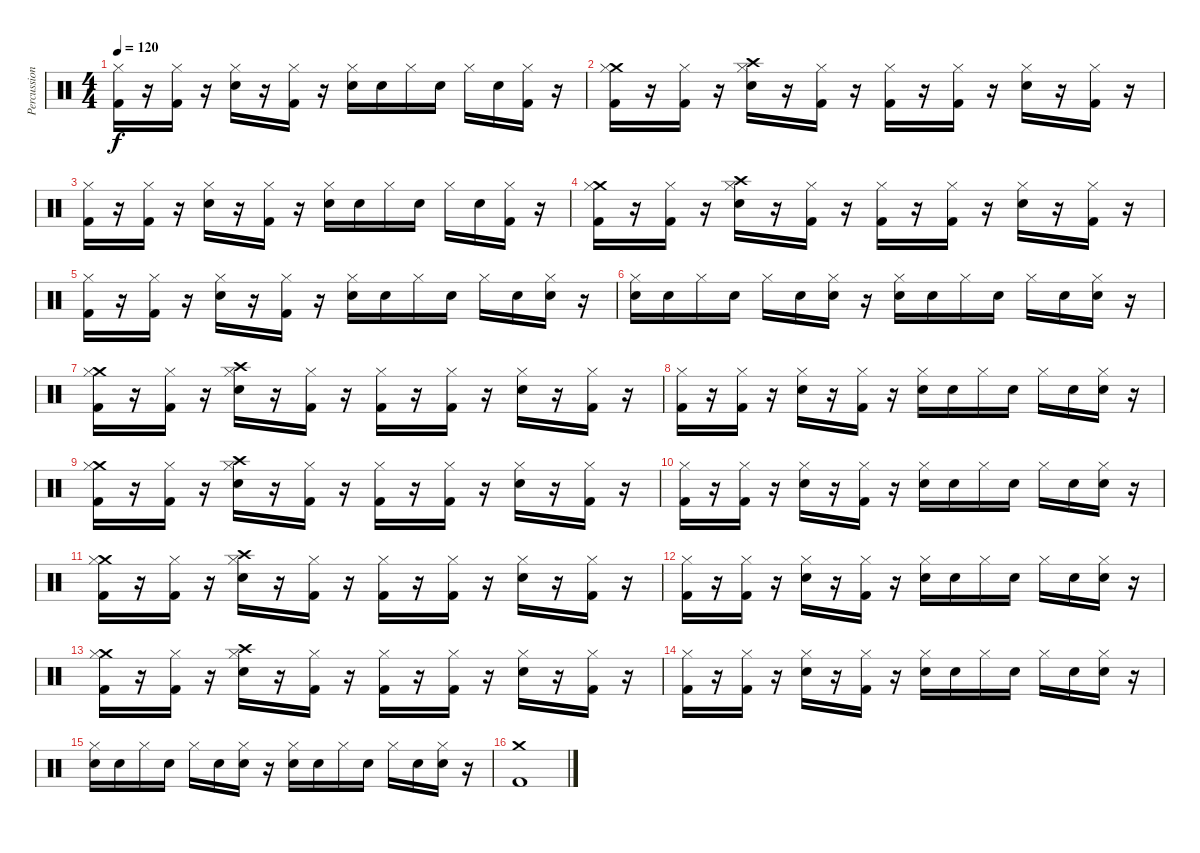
\track ("Percussion" "Percussion") {instrument percussion}
\staff {score}
\articulation defaults
\ts (4 4)
\tempo 120
\clef neutral
\ks c
("Hi-Hat (closed)" "Kick (hit) 2").16{dy f} r.16 ("Hi-Hat (closed)" "Kick (hit) 2").16 r.16 ("Hi-Hat (closed)" "Snare (hit) 2").16 r.16 ("Hi-Hat (closed)" "Kick (hit) 2").16 r.16 ("Hi-Hat (closed)" "Snare (hit) 2").16 "Snare (hit) 2".16 "Hi-Hat (closed)".16 "Snare (hit) 2".16 "Hi-Hat (closed)".16 "Snare (hit) 2".16 ("Hi-Hat (closed)" "Kick (hit) 2").16 r.16 |
("Crash medium (hit)" "Hi-Hat (closed)" "Kick (hit) 2").16 r.16 ("Hi-Hat (closed)" "Kick (hit) 2").16 r.16 ("Crash high (hit)" "Hi-Hat (closed)" "Snare (hit) 2").16 r.16 ("Hi-Hat (closed)" "Kick (hit) 2").16 r.16 ("Hi-Hat (closed)" "Kick (hit) 2").16 r.16 ("Hi-Hat (closed)" "Kick (hit) 2").16 r.16 ("Hi-Hat (closed)" "Snare (hit) 2").16 r.16 ("Hi-Hat (closed)" "Kick (hit) 2").16 r.16 |
("Hi-Hat (closed)" "Kick (hit) 2").16 r.16 ("Hi-Hat (closed)" "Kick (hit) 2").16 r.16 ("Hi-Hat (closed)" "Snare (hit) 2").16 r.16 ("Hi-Hat (closed)" "Kick (hit) 2").16 r.16 ("Hi-Hat (closed)" "Snare (hit) 2").16 "Snare (hit) 2".16 "Hi-Hat (closed)".16 "Snare (hit) 2".16 "Hi-Hat (closed)".16 "Snare (hit) 2".16 ("Hi-Hat (closed)" "Kick (hit) 2").16 r.16 |
("Crash medium (hit)" "Hi-Hat (closed)" "Kick (hit) 2").16 r.16 ("Hi-Hat (closed)" "Kick (hit) 2").16 r.16 ("Crash high (hit)" "Hi-Hat (closed)" "Snare (hit) 2").16 r.16 ("Hi-Hat (closed)" "Kick (hit) 2").16 r.16 ("Hi-Hat (closed)" "Kick (hit) 2").16 r.16 ("Hi-Hat (closed)" "Kick (hit) 2").16 r.16 ("Hi-Hat (closed)" "Snare (hit) 2").16 r.16 ("Hi-Hat (closed)" "Kick (hit) 2").16 r.16 |
("Hi-Hat (closed)" "Kick (hit) 2").16 r.16 ("Hi-Hat (closed)" "Kick (hit) 2").16 r.16 ("Hi-Hat (closed)" "Snare (hit) 2").16 r.16 ("Hi-Hat (closed)" "Kick (hit) 2").16 r.16 ("Hi-Hat (closed)" "Snare (hit) 2").16 "Snare (hit) 2".16 "Hi-Hat (closed)".16 "Snare (hit) 2".16 "Hi-Hat (closed)".16 "Snare (hit) 2".16 ("Hi-Hat (closed)" "Snare (hit) 2").16 r.16 |
("Hi-Hat (closed)" "Snare (hit) 2").16 "Snare (hit) 2".16 "Hi-Hat (closed)".16 "Snare (hit) 2".16 "Hi-Hat (closed)".16 "Snare (hit) 2".16 ("Hi-Hat (closed)" "Snare (hit) 2").16 r.16 ("Hi-Hat (closed)" "Snare (hit) 2").16 "Snare (hit) 2".16 "Hi-Hat (closed)".16 "Snare (hit) 2".16 "Hi-Hat (closed)".16 "Snare (hit) 2".16 ("Hi-Hat (closed)" "Snare (hit) 2").16 r.16 |
("Crash medium (hit)" "Hi-Hat (closed)" "Kick (hit) 2").16 r.16 ("Hi-Hat (closed)" "Kick (hit) 2").16 r.16 ("Crash high (hit)" "Hi-Hat (closed)" "Snare (hit) 2").16 r.16 ("Hi-Hat (closed)" "Kick (hit) 2").16 r.16 ("Hi-Hat (closed)" "Kick (hit) 2").16 r.16 ("Hi-Hat (closed)" "Kick (hit) 2").16 r.16 ("Hi-Hat (closed)" "Snare (hit) 2").16 r.16 ("Hi-Hat (closed)" "Kick (hit) 2").16 r.16 |
("Hi-Hat (closed)" "Kick (hit) 2").16 r.16 ("Hi-Hat (closed)" "Kick (hit) 2").16 r.16 ("Hi-Hat (closed)" "Snare (hit) 2").16 r.16 ("Hi-Hat (closed)" "Kick (hit) 2").16 r.16 ("Hi-Hat (closed)" "Snare (hit) 2").16 "Snare (hit) 2".16 "Hi-Hat (closed)".16 "Snare (hit) 2".16 "Hi-Hat (closed)".16 "Snare (hit) 2".16 ("Hi-Hat (closed)" "Snare (hit) 2").16 r.16 |
("Crash medium (hit)" "Hi-Hat (closed)" "Kick (hit) 2").16 r.16 ("Hi-Hat (closed)" "Kick (hit) 2").16 r.16 ("Crash high (hit)" "Hi-Hat (closed)" "Snare (hit) 2").16 r.16 ("Hi-Hat (closed)" "Kick (hit) 2").16 r.16 ("Hi-Hat (closed)" "Kick (hit) 2").16 r.16 ("Hi-Hat (closed)" "Kick (hit) 2").16 r.16 ("Hi-Hat (closed)" "Snare (hit) 2").16 r.16 ("Hi-Hat (closed)" "Kick (hit) 2").16 r.16 |
("Hi-Hat (closed)" "Kick (hit) 2").16 r.16 ("Hi-Hat (closed)" "Kick (hit) 2").16 r.16 ("Hi-Hat (closed)" "Snare (hit) 2").16 r.16 ("Hi-Hat (closed)" "Kick (hit) 2").16 r.16 ("Hi-Hat (closed)" "Snare (hit) 2").16 "Snare (hit) 2".16 "Hi-Hat (closed)".16 "Snare (hit) 2".16 "Hi-Hat (closed)".16 "Snare (hit) 2".16 ("Hi-Hat (closed)" "Snare (hit) 2").16 r.16 |
("Crash medium (hit)" "Hi-Hat (closed)" "Kick (hit) 2").16 r.16 ("Hi-Hat (closed)" "Kick (hit) 2").16 r.16 ("Crash high (hit)" "Hi-Hat (closed)" "Snare (hit) 2").16 r.16 ("Hi-Hat (closed)" "Kick (hit) 2").16 r.16 ("Hi-Hat (closed)" "Kick (hit) 2").16 r.16 ("Hi-Hat (closed)" "Kick (hit) 2").16 r.16 ("Hi-Hat (closed)" "Snare (hit) 2").16 r.16 ("Hi-Hat (closed)" "Kick (hit) 2").16 r.16 |
("Hi-Hat (closed)" "Kick (hit) 2").16 r.16 ("Hi-Hat (closed)" "Kick (hit) 2").16 r.16 ("Hi-Hat (closed)" "Snare (hit) 2").16 r.16 ("Hi-Hat (closed)" "Kick (hit) 2").16 r.16 ("Hi-Hat (closed)" "Snare (hit) 2").16 "Snare (hit) 2".16 "Hi-Hat (closed)".16 "Snare (hit) 2".16 "Hi-Hat (closed)".16 "Snare (hit) 2".16 ("Hi-Hat (closed)" "Snare (hit) 2").16 r.16 |
("Crash medium (hit)" "Hi-Hat (closed)" "Kick (hit) 2").16 r.16 ("Hi-Hat (closed)" "Kick (hit) 2").16 r.16 ("Crash high (hit)" "Hi-Hat (closed)" "Snare (hit) 2").16 r.16 ("Hi-Hat (closed)" "Kick (hit) 2").16 r.16 ("Hi-Hat (closed)" "Kick (hit) 2").16 r.16 ("Hi-Hat (closed)" "Kick (hit) 2").16 r.16 ("Hi-Hat (closed)" "Snare (hit) 2").16 r.16 ("Hi-Hat (closed)" "Kick (hit) 2").16 r.16 |
("Hi-Hat (closed)" "Kick (hit) 2").16 r.16 ("Hi-Hat (closed)" "Kick (hit) 2").16 r.16 ("Hi-Hat (closed)" "Snare (hit) 2").16 r.16 ("Hi-Hat (closed)" "Kick (hit) 2").16 r.16 ("Hi-Hat (closed)" "Snare (hit) 2").16 "Snare (hit) 2".16 "Hi-Hat (closed)".16 "Snare (hit) 2".16 "Hi-Hat (closed)".16 "Snare (hit) 2".16 ("Hi-Hat (closed)" "Snare (hit) 2").16 r.16 |
("Hi-Hat (closed)" "Snare (hit) 2").16 "Snare (hit) 2".16 "Hi-Hat (closed)".16 "Snare (hit) 2".16 "Hi-Hat (closed)".16 "Snare (hit) 2".16 ("Hi-Hat (closed)" "Snare (hit) 2").16 r.16 ("Hi-Hat (closed)" "Snare (hit) 2").16 "Snare (hit) 2".16 "Hi-Hat (closed)".16 "Snare (hit) 2".16 "Hi-Hat (closed)".16 "Snare (hit) 2".16 ("Hi-Hat (closed)" "Snare (hit) 2").16 r.16 |
("Crash medium (hit)" "Kick (hit) 2").1
